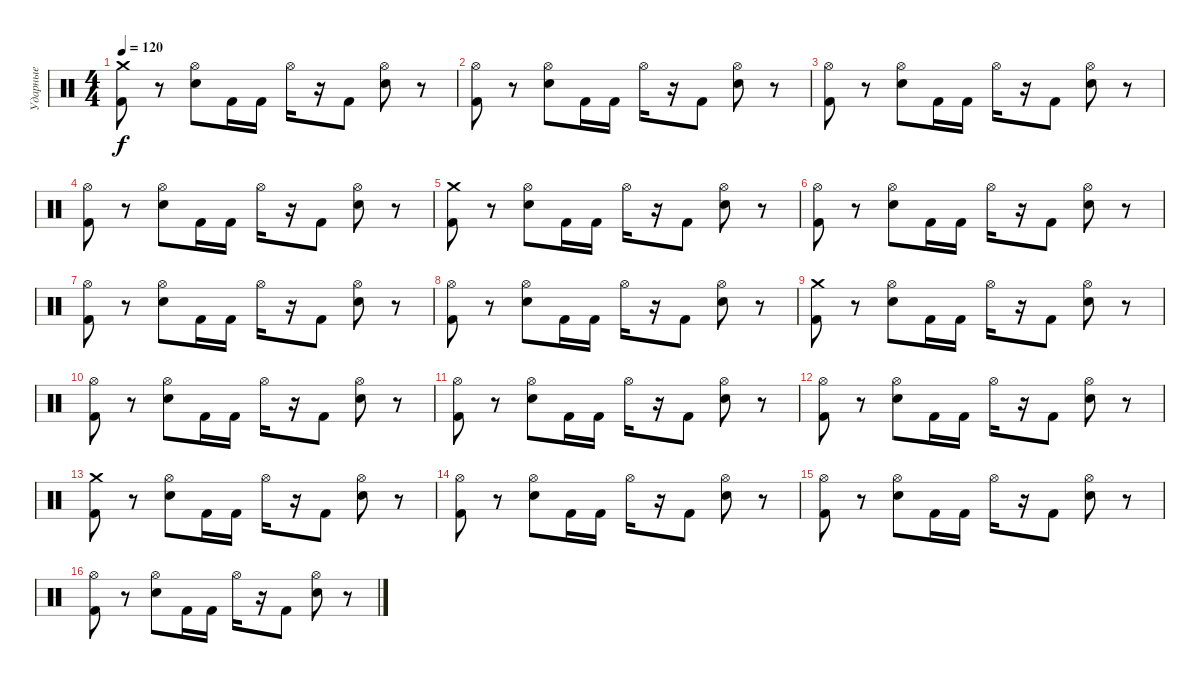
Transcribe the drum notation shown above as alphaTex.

\track ("Ударные" "Ударные") {instrument percussion}
\staff {score}
\articulation defaults
\ts (4 4)
\tempo 120
\clef neutral
\ks c
("Crash medium (hit)" "Kick (hit) 2").8{dy f} r.8 ("Hi-Hat (open)" "Snare (hit) 2").8 "Kick (hit) 2".16 "Kick (hit) 2".16 "Hi-Hat (open)".16 r.16 "Kick (hit) 2".8 ("Hi-Hat (open)" "Snare (hit) 2").8 r.8 |
("Hi-Hat (open)" "Kick (hit) 2").8 r.8 ("Hi-Hat (open)" "Snare (hit) 2").8 "Kick (hit) 2".16 "Kick (hit) 2".16 "Hi-Hat (open)".16 r.16 "Kick (hit) 2".8 ("Hi-Hat (open)" "Snare (hit) 2").8 r.8 |
("Hi-Hat (open)" "Kick (hit) 2").8 r.8 ("Hi-Hat (open)" "Snare (hit) 2").8 "Kick (hit) 2".16 "Kick (hit) 2".16 "Hi-Hat (open)".16 r.16 "Kick (hit) 2".8 ("Hi-Hat (open)" "Snare (hit) 2").8 r.8 |
("Hi-Hat (open)" "Kick (hit) 2").8 r.8 ("Hi-Hat (open)" "Snare (hit) 2").8 "Kick (hit) 2".16 "Kick (hit) 2".16 "Hi-Hat (open)".16 r.16 "Kick (hit) 2".8 ("Hi-Hat (open)" "Snare (hit) 2").8 r.8 |
("Crash medium (hit)" "Kick (hit) 2").8 r.8 ("Hi-Hat (open)" "Snare (hit) 2").8 "Kick (hit) 2".16 "Kick (hit) 2".16 "Hi-Hat (open)".16 r.16 "Kick (hit) 2".8 ("Hi-Hat (open)" "Snare (hit) 2").8 r.8 |
("Hi-Hat (open)" "Kick (hit) 2").8 r.8 ("Hi-Hat (open)" "Snare (hit) 2").8 "Kick (hit) 2".16 "Kick (hit) 2".16 "Hi-Hat (open)".16 r.16 "Kick (hit) 2".8 ("Hi-Hat (open)" "Snare (hit) 2").8 r.8 |
("Hi-Hat (open)" "Kick (hit) 2").8 r.8 ("Hi-Hat (open)" "Snare (hit) 2").8 "Kick (hit) 2".16 "Kick (hit) 2".16 "Hi-Hat (open)".16 r.16 "Kick (hit) 2".8 ("Hi-Hat (open)" "Snare (hit) 2").8 r.8 |
("Hi-Hat (open)" "Kick (hit) 2").8 r.8 ("Hi-Hat (open)" "Snare (hit) 2").8 "Kick (hit) 2".16 "Kick (hit) 2".16 "Hi-Hat (open)".16 r.16 "Kick (hit) 2".8 ("Hi-Hat (open)" "Snare (hit) 2").8 r.8 |
("Crash medium (hit)" "Kick (hit) 2").8 r.8 ("Hi-Hat (open)" "Snare (hit) 2").8 "Kick (hit) 2".16 "Kick (hit) 2".16 "Hi-Hat (open)".16 r.16 "Kick (hit) 2".8 ("Hi-Hat (open)" "Snare (hit) 2").8 r.8 |
("Hi-Hat (open)" "Kick (hit) 2").8 r.8 ("Hi-Hat (open)" "Snare (hit) 2").8 "Kick (hit) 2".16 "Kick (hit) 2".16 "Hi-Hat (open)".16 r.16 "Kick (hit) 2".8 ("Hi-Hat (open)" "Snare (hit) 2").8 r.8 |
("Hi-Hat (open)" "Kick (hit) 2").8 r.8 ("Hi-Hat (open)" "Snare (hit) 2").8 "Kick (hit) 2".16 "Kick (hit) 2".16 "Hi-Hat (open)".16 r.16 "Kick (hit) 2".8 ("Hi-Hat (open)" "Snare (hit) 2").8 r.8 |
("Hi-Hat (open)" "Kick (hit) 2").8 r.8 ("Hi-Hat (open)" "Snare (hit) 2").8 "Kick (hit) 2".16 "Kick (hit) 2".16 "Hi-Hat (open)".16 r.16 "Kick (hit) 2".8 ("Hi-Hat (open)" "Snare (hit) 2").8 r.8 |
("Crash medium (hit)" "Kick (hit) 2").8 r.8 ("Hi-Hat (open)" "Snare (hit) 2").8 "Kick (hit) 2".16 "Kick (hit) 2".16 "Hi-Hat (open)".16 r.16 "Kick (hit) 2".8 ("Hi-Hat (open)" "Snare (hit) 2").8 r.8 |
("Hi-Hat (open)" "Kick (hit) 2").8 r.8 ("Hi-Hat (open)" "Snare (hit) 2").8 "Kick (hit) 2".16 "Kick (hit) 2".16 "Hi-Hat (open)".16 r.16 "Kick (hit) 2".8 ("Hi-Hat (open)" "Snare (hit) 2").8 r.8 |
("Hi-Hat (open)" "Kick (hit) 2").8 r.8 ("Hi-Hat (open)" "Snare (hit) 2").8 "Kick (hit) 2".16 "Kick (hit) 2".16 "Hi-Hat (open)".16 r.16 "Kick (hit) 2".8 ("Hi-Hat (open)" "Snare (hit) 2").8 r.8 |
("Hi-Hat (open)" "Kick (hit) 2").8 r.8 ("Hi-Hat (open)" "Snare (hit) 2").8 "Kick (hit) 2".16 "Kick (hit) 2".16 "Hi-Hat (open)".16 r.16 "Kick (hit) 2".8 ("Hi-Hat (open)" "Snare (hit) 2").8 r.8
